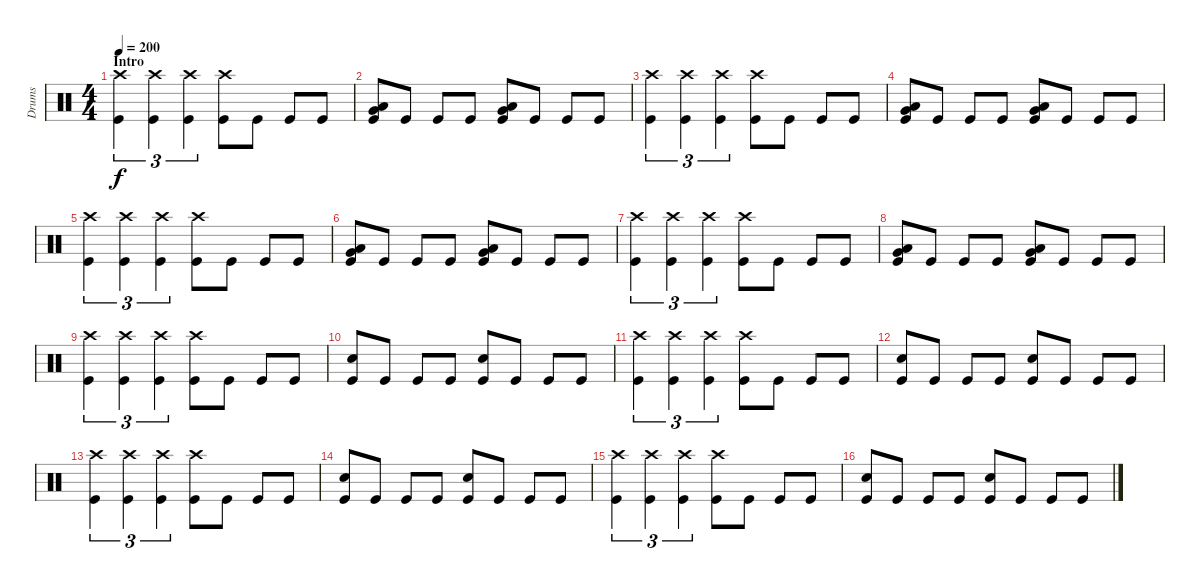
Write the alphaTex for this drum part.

\track ("Drums" "Drums") {instrument percussion}
\staff {score}
\articulation defaults
\ts (4 4)
\section ("" "Intro")
\tempo 200
\tempo 175
\tempo 200
\clef neutral
\ks c
("Crash high (hit)" "Kick (hit)").4{tu (3 2) dy f} ("Crash high (hit)" "Kick (hit)").4{tu (3 2)} ("Crash high (hit)" "Kick (hit)").4{tu (3 2)} ("Crash high (hit)" "Kick (hit)").8 "Kick (hit)".8 "Kick (hit)".8 "Kick (hit)".8 |
("Very Low Tom (hit)" "Low Floor Tom (hit)" "Kick (hit)").8 "Kick (hit)".8 "Kick (hit)".8 "Kick (hit)".8 ("Very Low Tom (hit)" "Low Floor Tom (hit)" "Kick (hit)").8 "Kick (hit)".8 "Kick (hit)".8 "Kick (hit)".8 |
("Crash high (hit)" "Kick (hit)").4{tu (3 2)} ("Crash high (hit)" "Kick (hit)").4{tu (3 2)} ("Crash high (hit)" "Kick (hit)").4{tu (3 2)} ("Crash high (hit)" "Kick (hit)").8 "Kick (hit)".8 "Kick (hit)".8 "Kick (hit)".8 |
("Very Low Tom (hit)" "Low Floor Tom (hit)" "Kick (hit)").8 "Kick (hit)".8 "Kick (hit)".8 "Kick (hit)".8 ("Very Low Tom (hit)" "Low Floor Tom (hit)" "Kick (hit)").8 "Kick (hit)".8 "Kick (hit)".8 "Kick (hit)".8 |
("Crash high (hit)" "Kick (hit)").4{tu (3 2)} ("Crash high (hit)" "Kick (hit)").4{tu (3 2)} ("Crash high (hit)" "Kick (hit)").4{tu (3 2)} ("Crash high (hit)" "Kick (hit)").8 "Kick (hit)".8 "Kick (hit)".8 "Kick (hit)".8 |
("Very Low Tom (hit)" "Low Floor Tom (hit)" "Kick (hit)").8 "Kick (hit)".8 "Kick (hit)".8 "Kick (hit)".8 ("Very Low Tom (hit)" "Low Floor Tom (hit)" "Kick (hit)").8 "Kick (hit)".8 "Kick (hit)".8 "Kick (hit)".8 |
("Crash high (hit)" "Kick (hit)").4{tu (3 2)} ("Crash high (hit)" "Kick (hit)").4{tu (3 2)} ("Crash high (hit)" "Kick (hit)").4{tu (3 2)} ("Crash high (hit)" "Kick (hit)").8 "Kick (hit)".8 "Kick (hit)".8 "Kick (hit)".8 |
("Very Low Tom (hit)" "Low Floor Tom (hit)" "Kick (hit)").8 "Kick (hit)".8 "Kick (hit)".8 "Kick (hit)".8 ("Very Low Tom (hit)" "Low Floor Tom (hit)" "Kick (hit)").8 "Kick (hit)".8 "Kick (hit)".8 "Kick (hit)".8 |
("Crash high (hit)" "Kick (hit)").4{tu (3 2)} ("Crash high (hit)" "Kick (hit)").4{tu (3 2)} ("Crash high (hit)" "Kick (hit)").4{tu (3 2)} ("Crash high (hit)" "Kick (hit)").8 "Kick (hit)".8 "Kick (hit)".8 "Kick (hit)".8 |
("Snare (hit) 2" "Kick (hit)").8 "Kick (hit)".8 "Kick (hit)".8 "Kick (hit)".8 ("Snare (hit) 2" "Kick (hit)").8 "Kick (hit)".8 "Kick (hit)".8 "Kick (hit)".8 |
("Crash high (hit)" "Kick (hit)").4{tu (3 2)} ("Crash high (hit)" "Kick (hit)").4{tu (3 2)} ("Crash high (hit)" "Kick (hit)").4{tu (3 2)} ("Crash high (hit)" "Kick (hit)").8 "Kick (hit)".8 "Kick (hit)".8 "Kick (hit)".8 |
("Snare (hit) 2" "Kick (hit)").8 "Kick (hit)".8 "Kick (hit)".8 "Kick (hit)".8 ("Snare (hit) 2" "Kick (hit)").8 "Kick (hit)".8 "Kick (hit)".8 "Kick (hit)".8 |
("Crash high (hit)" "Kick (hit)").4{tu (3 2)} ("Crash high (hit)" "Kick (hit)").4{tu (3 2)} ("Crash high (hit)" "Kick (hit)").4{tu (3 2)} ("Crash high (hit)" "Kick (hit)").8 "Kick (hit)".8 "Kick (hit)".8 "Kick (hit)".8 |
("Snare (hit) 2" "Kick (hit)").8 "Kick (hit)".8 "Kick (hit)".8 "Kick (hit)".8 ("Snare (hit) 2" "Kick (hit)").8 "Kick (hit)".8 "Kick (hit)".8 "Kick (hit)".8 |
("Crash high (hit)" "Kick (hit)").4{tu (3 2)} ("Crash high (hit)" "Kick (hit)").4{tu (3 2)} ("Crash high (hit)" "Kick (hit)").4{tu (3 2)} ("Crash high (hit)" "Kick (hit)").8 "Kick (hit)".8 "Kick (hit)".8 "Kick (hit)".8 |
("Snare (hit) 2" "Kick (hit)").8 "Kick (hit)".8 "Kick (hit)".8 "Kick (hit)".8 ("Snare (hit) 2" "Kick (hit)").8 "Kick (hit)".8 "Kick (hit)".8 "Kick (hit)".8
